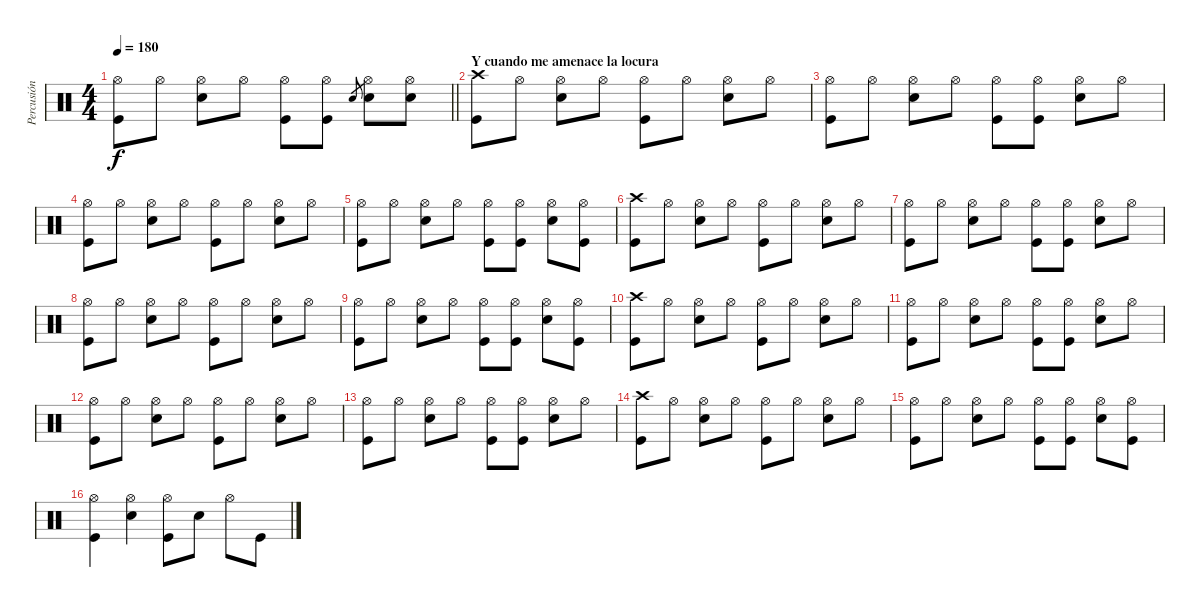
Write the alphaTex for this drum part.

\track ("Percusión" "Percusión") {instrument percussion}
\staff {score}
\articulation defaults
\ts (4 4)
\tempo 180
\clef neutral
\barLineRight lightlight
\ks c
("Hi-Hat (open)" "Kick (hit)").8{dy f} "Hi-Hat (open)".8 ("Hi-Hat (open)" "Electric Snare (hit)").8 "Hi-Hat (open)".8 ("Hi-Hat (open)" "Kick (hit)").8 ("Hi-Hat (open)" "Kick (hit)").8 "Electric Snare (hit)".8{gr} ("Hi-Hat (open)" "Electric Snare (hit)").8 ("Hi-Hat (open)" "Electric Snare (hit)").8 |
\section ("" "Y cuando me amenace la locura")
("Crash high (hit)" "Kick (hit)").8 "Hi-Hat (open)".8 ("Hi-Hat (open)" "Electric Snare (hit)").8 "Hi-Hat (open)".8 ("Hi-Hat (open)" "Kick (hit)").8 "Hi-Hat (open)".8 ("Hi-Hat (open)" "Electric Snare (hit)").8 "Hi-Hat (open)".8 |
("Hi-Hat (open)" "Kick (hit)").8 "Hi-Hat (open)".8 ("Hi-Hat (open)" "Electric Snare (hit)").8 "Hi-Hat (open)".8 ("Hi-Hat (open)" "Kick (hit)").8 ("Hi-Hat (open)" "Kick (hit)").8 ("Hi-Hat (open)" "Electric Snare (hit)").8 "Hi-Hat (open)".8 |
("Hi-Hat (open)" "Kick (hit)").8 "Hi-Hat (open)".8 ("Hi-Hat (open)" "Electric Snare (hit)").8 "Hi-Hat (open)".8 ("Hi-Hat (open)" "Kick (hit)").8 "Hi-Hat (open)".8 ("Hi-Hat (open)" "Electric Snare (hit)").8 "Hi-Hat (open)".8 |
("Hi-Hat (open)" "Kick (hit)").8 "Hi-Hat (open)".8 ("Hi-Hat (open)" "Electric Snare (hit)").8 "Hi-Hat (open)".8 ("Hi-Hat (open)" "Kick (hit)").8 ("Hi-Hat (open)" "Kick (hit)").8 ("Hi-Hat (open)" "Electric Snare (hit)").8 ("Hi-Hat (open)" "Kick (hit)").8 |
("Crash high (hit)" "Kick (hit)").8 "Hi-Hat (open)".8 ("Hi-Hat (open)" "Electric Snare (hit)").8 "Hi-Hat (open)".8 ("Hi-Hat (open)" "Kick (hit)").8 "Hi-Hat (open)".8 ("Hi-Hat (open)" "Electric Snare (hit)").8 "Hi-Hat (open)".8 |
("Hi-Hat (open)" "Kick (hit)").8 "Hi-Hat (open)".8 ("Hi-Hat (open)" "Electric Snare (hit)").8 "Hi-Hat (open)".8 ("Hi-Hat (open)" "Kick (hit)").8 ("Hi-Hat (open)" "Kick (hit)").8 ("Hi-Hat (open)" "Electric Snare (hit)").8 "Hi-Hat (open)".8 |
("Hi-Hat (open)" "Kick (hit)").8 "Hi-Hat (open)".8 ("Hi-Hat (open)" "Electric Snare (hit)").8 "Hi-Hat (open)".8 ("Hi-Hat (open)" "Kick (hit)").8 "Hi-Hat (open)".8 ("Hi-Hat (open)" "Electric Snare (hit)").8 "Hi-Hat (open)".8 |
("Hi-Hat (open)" "Kick (hit)").8 "Hi-Hat (open)".8 ("Hi-Hat (open)" "Electric Snare (hit)").8 "Hi-Hat (open)".8 ("Hi-Hat (open)" "Kick (hit)").8 ("Hi-Hat (open)" "Kick (hit)").8 ("Hi-Hat (open)" "Electric Snare (hit)").8 ("Hi-Hat (open)" "Kick (hit)").8 |
("Crash high (hit)" "Kick (hit)").8 "Hi-Hat (open)".8 ("Hi-Hat (open)" "Electric Snare (hit)").8 "Hi-Hat (open)".8 ("Hi-Hat (open)" "Kick (hit)").8 "Hi-Hat (open)".8 ("Hi-Hat (open)" "Electric Snare (hit)").8 "Hi-Hat (open)".8 |
("Hi-Hat (open)" "Kick (hit)").8 "Hi-Hat (open)".8 ("Hi-Hat (open)" "Electric Snare (hit)").8 "Hi-Hat (open)".8 ("Hi-Hat (open)" "Kick (hit)").8 ("Hi-Hat (open)" "Kick (hit)").8 ("Hi-Hat (open)" "Electric Snare (hit)").8 "Hi-Hat (open)".8 |
("Hi-Hat (open)" "Kick (hit)").8 "Hi-Hat (open)".8 ("Hi-Hat (open)" "Electric Snare (hit)").8 "Hi-Hat (open)".8 ("Hi-Hat (open)" "Kick (hit)").8 "Hi-Hat (open)".8 ("Hi-Hat (open)" "Electric Snare (hit)").8 "Hi-Hat (open)".8 |
("Hi-Hat (open)" "Kick (hit)").8 "Hi-Hat (open)".8 ("Hi-Hat (open)" "Electric Snare (hit)").8 "Hi-Hat (open)".8 ("Hi-Hat (open)" "Kick (hit)").8 ("Hi-Hat (open)" "Kick (hit)").8 ("Hi-Hat (open)" "Electric Snare (hit)").8 "Hi-Hat (open)".8 |
("Crash high (hit)" "Kick (hit)").8 "Hi-Hat (open)".8 ("Hi-Hat (open)" "Electric Snare (hit)").8 "Hi-Hat (open)".8 ("Hi-Hat (open)" "Kick (hit)").8 "Hi-Hat (open)".8 ("Hi-Hat (open)" "Electric Snare (hit)").8 "Hi-Hat (open)".8 |
("Hi-Hat (open)" "Kick (hit)").8 "Hi-Hat (open)".8 ("Hi-Hat (open)" "Electric Snare (hit)").8 "Hi-Hat (open)".8 ("Hi-Hat (open)" "Kick (hit)").8 ("Hi-Hat (open)" "Kick (hit)").8 ("Hi-Hat (open)" "Electric Snare (hit)").8 ("Hi-Hat (open)" "Kick (hit)").8 |
("Hi-Hat (open)" "Kick (hit)").4 ("Hi-Hat (open)" "Electric Snare (hit)").4 ("Hi-Hat (open)" "Kick (hit)").8 "Electric Snare (hit)".8 "Hi-Hat (open)".8 "Kick (hit)".8
